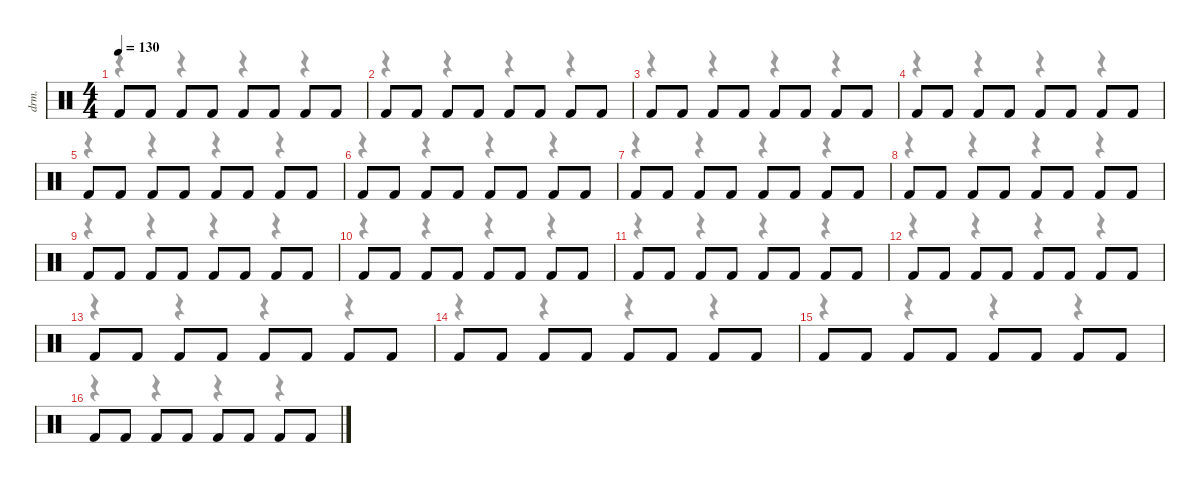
\defaultSystemsLayout 4
\hideDynamics
\bracketExtendMode nobrackets
\track ("Shaker" "drm.") {instrument percussion}
\staff {score}
\articulation defaults
\voice
\ts (4 4)
\tempo 130
\clef neutral
\ks c "Kick (hit) 2".8{dy pp} "Kick (hit) 2".8 "Kick (hit) 2".8 "Kick (hit) 2".8 "Kick (hit) 2".8 "Kick (hit) 2".8 "Kick (hit) 2".8 "Kick (hit) 2".8
|
"Kick (hit) 2".8 "Kick (hit) 2".8 "Kick (hit) 2".8 "Kick (hit) 2".8 "Kick (hit) 2".8 "Kick (hit) 2".8 "Kick (hit) 2".8 "Kick (hit) 2".8 |
"Kick (hit) 2".8 "Kick (hit) 2".8 "Kick (hit) 2".8 "Kick (hit) 2".8 "Kick (hit) 2".8 "Kick (hit) 2".8 "Kick (hit) 2".8 "Kick (hit) 2".8 |
"Kick (hit) 2".8 "Kick (hit) 2".8 "Kick (hit) 2".8 "Kick (hit) 2".8 "Kick (hit) 2".8 "Kick (hit) 2".8 "Kick (hit) 2".8 "Kick (hit) 2".8 |
"Kick (hit) 2".8 "Kick (hit) 2".8 "Kick (hit) 2".8 "Kick (hit) 2".8 "Kick (hit) 2".8 "Kick (hit) 2".8 "Kick (hit) 2".8 "Kick (hit) 2".8 |
"Kick (hit) 2".8 "Kick (hit) 2".8 "Kick (hit) 2".8 "Kick (hit) 2".8 "Kick (hit) 2".8 "Kick (hit) 2".8 "Kick (hit) 2".8 "Kick (hit) 2".8 |
"Kick (hit) 2".8 "Kick (hit) 2".8 "Kick (hit) 2".8 "Kick (hit) 2".8 "Kick (hit) 2".8 "Kick (hit) 2".8 "Kick (hit) 2".8 "Kick (hit) 2".8 |
"Kick (hit) 2".8 "Kick (hit) 2".8 "Kick (hit) 2".8 "Kick (hit) 2".8 "Kick (hit) 2".8 "Kick (hit) 2".8 "Kick (hit) 2".8 "Kick (hit) 2".8 |
"Kick (hit) 2".8 "Kick (hit) 2".8 "Kick (hit) 2".8 "Kick (hit) 2".8 "Kick (hit) 2".8 "Kick (hit) 2".8 "Kick (hit) 2".8 "Kick (hit) 2".8 |
"Kick (hit) 2".8 "Kick (hit) 2".8 "Kick (hit) 2".8 "Kick (hit) 2".8 "Kick (hit) 2".8 "Kick (hit) 2".8 "Kick (hit) 2".8 "Kick (hit) 2".8 |
"Kick (hit) 2".8 "Kick (hit) 2".8 "Kick (hit) 2".8 "Kick (hit) 2".8 "Kick (hit) 2".8 "Kick (hit) 2".8 "Kick (hit) 2".8 "Kick (hit) 2".8 |
"Kick (hit) 2".8 "Kick (hit) 2".8 "Kick (hit) 2".8 "Kick (hit) 2".8 "Kick (hit) 2".8 "Kick (hit) 2".8 "Kick (hit) 2".8 "Kick (hit) 2".8 |
"Kick (hit) 2".8 "Kick (hit) 2".8 "Kick (hit) 2".8 "Kick (hit) 2".8 "Kick (hit) 2".8 "Kick (hit) 2".8 "Kick (hit) 2".8 "Kick (hit) 2".8 |
"Kick (hit) 2".8 "Kick (hit) 2".8 "Kick (hit) 2".8 "Kick (hit) 2".8 "Kick (hit) 2".8 "Kick (hit) 2".8 "Kick (hit) 2".8 "Kick (hit) 2".8 |
"Kick (hit) 2".8 "Kick (hit) 2".8 "Kick (hit) 2".8 "Kick (hit) 2".8 "Kick (hit) 2".8 "Kick (hit) 2".8 "Kick (hit) 2".8 "Kick (hit) 2".8 |
"Kick (hit) 2".8 "Kick (hit) 2".8 "Kick (hit) 2".8 "Kick (hit) 2".8 "Kick (hit) 2".8 "Kick (hit) 2".8 "Kick (hit) 2".8 "Kick (hit) 2".8
\voice
\clef neutral
\ottava regular
\simile none
\ks c
r.4{dy mf} r.4 r.4 r.4 |
r.4 r.4 r.4 r.4 |
r.4 r.4 r.4 r.4 |
r.4 r.4 r.4 r.4 |
r.4 r.4 r.4 r.4 |
r.4 r.4 r.4 r.4 |
r.4 r.4 r.4 r.4 |
r.4 r.4 r.4 r.4 |
r.4 r.4 r.4 r.4 |
r.4 r.4 r.4 r.4 |
r.4 r.4 r.4 r.4 |
r.4 r.4 r.4 r.4 |
r.4 r.4 r.4 r.4 |
r.4 r.4 r.4 r.4 |
r.4 r.4 r.4 r.4 |
r.4 r.4 r.4 r.4
